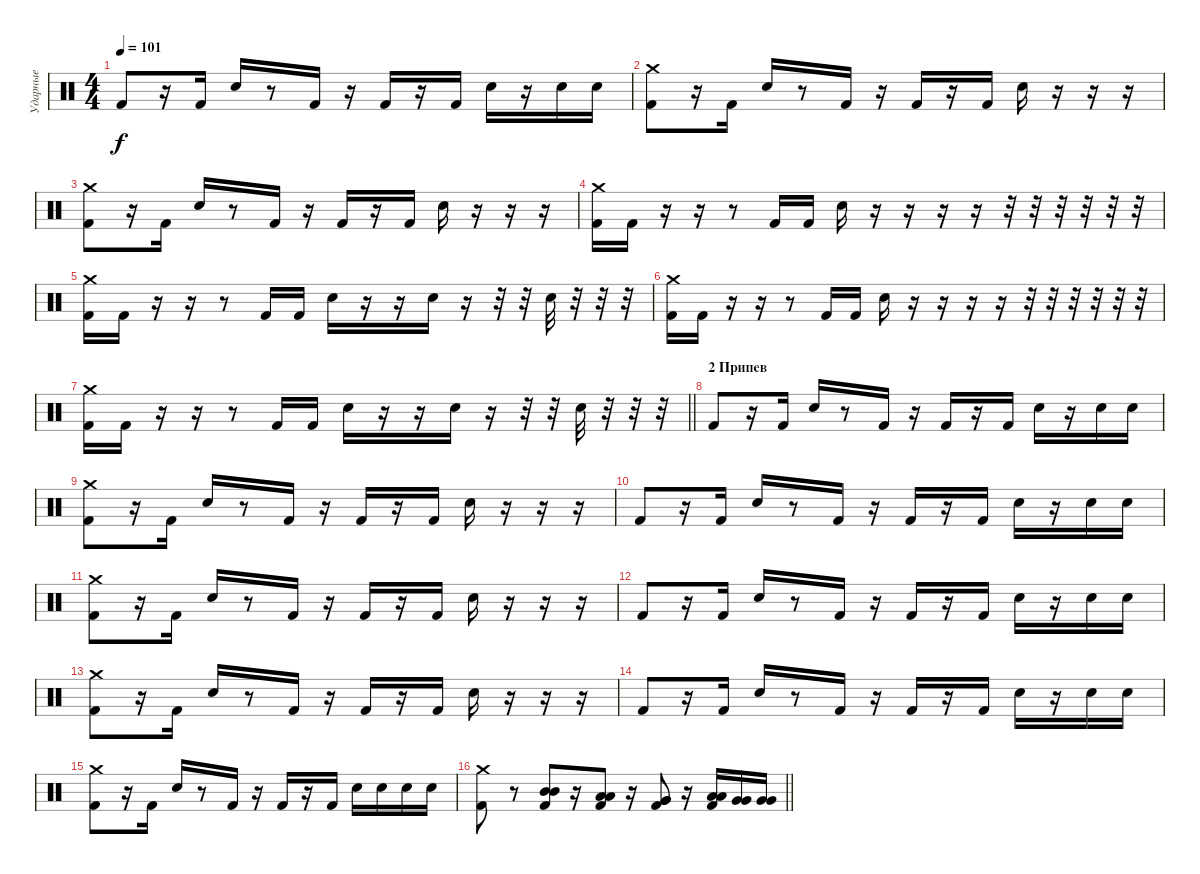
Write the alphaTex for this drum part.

\track ("Ударные" "Ударные") {instrument percussion}
\staff {score}
\articulation defaults
\ts (4 4)
\tempo 101
\clef neutral
\ks c "Kick (hit) 2".8{dy f}
r.16 "Kick (hit) 2".16 "Snare (hit) 2".16 r.8 "Kick (hit) 2".16 r.16 "Kick (hit) 2".16 r.16 "Kick (hit) 2".16 "Snare (hit) 2".16 r.16 "Snare (hit) 2".16 "Snare (hit) 2".16 |
("Crash medium (hit)" "Kick (hit) 2").8 r.16 "Kick (hit) 2".16 "Snare (hit) 2".16 r.8 "Kick (hit) 2".16 r.16 "Kick (hit) 2".16 r.16 "Kick (hit) 2".16 "Snare (hit) 2".16 r.16 r.16 r.16 |
("Crash medium (hit)" "Kick (hit) 2").8 r.16 "Kick (hit) 2".16 "Snare (hit) 2".16 r.8 "Kick (hit) 2".16 r.16 "Kick (hit) 2".16 r.16 "Kick (hit) 2".16 "Snare (hit) 2".16 r.16 r.16 r.16 |
("Crash medium (hit)" "Kick (hit) 2").16 "Kick (hit) 2".16 r.16 r.16 r.8 "Kick (hit) 2".16 "Kick (hit) 2".16 "Snare (hit) 2".16 r.16 r.16 r.16 r.16 r.32 r.32 r.32 r.32 r.32 r.32 |
("Crash medium (hit)" "Kick (hit) 2").16 "Kick (hit) 2".16 r.16 r.16 r.8 "Kick (hit) 2".16 "Kick (hit) 2".16 "Snare (hit) 2".16 r.16 r.16 "Snare (hit) 2".16 r.16 r.32 r.32 "Snare (hit) 2".32 r.32 r.32 r.32 |
("Crash medium (hit)" "Kick (hit) 2").16 "Kick (hit) 2".16 r.16 r.16 r.8 "Kick (hit) 2".16 "Kick (hit) 2".16 "Snare (hit) 2".16 r.16 r.16 r.16 r.16 r.32 r.32 r.32 r.32 r.32 r.32 |
\barLineRight lightlight
("Crash medium (hit)" "Kick (hit) 2").16 "Kick (hit) 2".16 r.16 r.16 r.8 "Kick (hit) 2".16 "Kick (hit) 2".16 "Snare (hit) 2".16 r.16 r.16 "Snare (hit) 2".16 r.16 r.32 r.32 "Snare (hit) 2".32 r.32 r.32 r.32 |
\section ("" "2 Припев")
"Kick (hit) 2".8 r.16 "Kick (hit) 2".16 "Snare (hit) 2".16 r.8 "Kick (hit) 2".16 r.16 "Kick (hit) 2".16 r.16 "Kick (hit) 2".16 "Snare (hit) 2".16 r.16 "Snare (hit) 2".16 "Snare (hit) 2".16 |
("Crash medium (hit)" "Kick (hit) 2").8 r.16 "Kick (hit) 2".16 "Snare (hit) 2".16 r.8 "Kick (hit) 2".16 r.16 "Kick (hit) 2".16 r.16 "Kick (hit) 2".16 "Snare (hit) 2".16 r.16 r.16 r.16 |
"Kick (hit) 2".8 r.16 "Kick (hit) 2".16 "Snare (hit) 2".16 r.8 "Kick (hit) 2".16 r.16 "Kick (hit) 2".16 r.16 "Kick (hit) 2".16 "Snare (hit) 2".16 r.16 "Snare (hit) 2".16 "Snare (hit) 2".16 |
("Crash medium (hit)" "Kick (hit) 2").8 r.16 "Kick (hit) 2".16 "Snare (hit) 2".16 r.8 "Kick (hit) 2".16 r.16 "Kick (hit) 2".16 r.16 "Kick (hit) 2".16 "Snare (hit) 2".16 r.16 r.16 r.16 |
"Kick (hit) 2".8 r.16 "Kick (hit) 2".16 "Snare (hit) 2".16 r.8 "Kick (hit) 2".16 r.16 "Kick (hit) 2".16 r.16 "Kick (hit) 2".16 "Snare (hit) 2".16 r.16 "Snare (hit) 2".16 "Snare (hit) 2".16 |
("Crash medium (hit)" "Kick (hit) 2").8 r.16 "Kick (hit) 2".16 "Snare (hit) 2".16 r.8 "Kick (hit) 2".16 r.16 "Kick (hit) 2".16 r.16 "Kick (hit) 2".16 "Snare (hit) 2".16 r.16 r.16 r.16 |
"Kick (hit) 2".8 r.16 "Kick (hit) 2".16 "Snare (hit) 2".16 r.8 "Kick (hit) 2".16 r.16 "Kick (hit) 2".16 r.16 "Kick (hit) 2".16 "Snare (hit) 2".16 r.16 "Snare (hit) 2".16 "Snare (hit) 2".16 |
("Crash medium (hit)" "Kick (hit) 2").8 r.16 "Kick (hit) 2".16 "Snare (hit) 2".16 r.8 "Kick (hit) 2".16 r.16 "Kick (hit) 2".16 r.16 "Kick (hit) 2".16 "Snare (hit) 2".16 "Snare (hit) 2".16 "Snare (hit) 2".16 "Snare (hit) 2".16 |
\barLineRight lightlight
("Kick (hit) 2" "Crash medium (hit)").8 r.8 ("Mid Tom (hit)" "Mid Tom (hit)" "Kick (hit) 2").8 r.16 ("Low Tom (hit)" "Low Tom (hit)" "Kick (hit) 2").8 r.16 ("Very Low Tom (hit)" "Very Low Tom (hit)" "Kick (hit) 2").8 r.16 ("Low Tom (hit)" "Low Tom (hit)" "Kick (hit) 2").16 ("Very Low Tom (hit)" "Very Low Tom (hit)").16 ("Very Low Tom (hit)" "Very Low Tom (hit)").16
